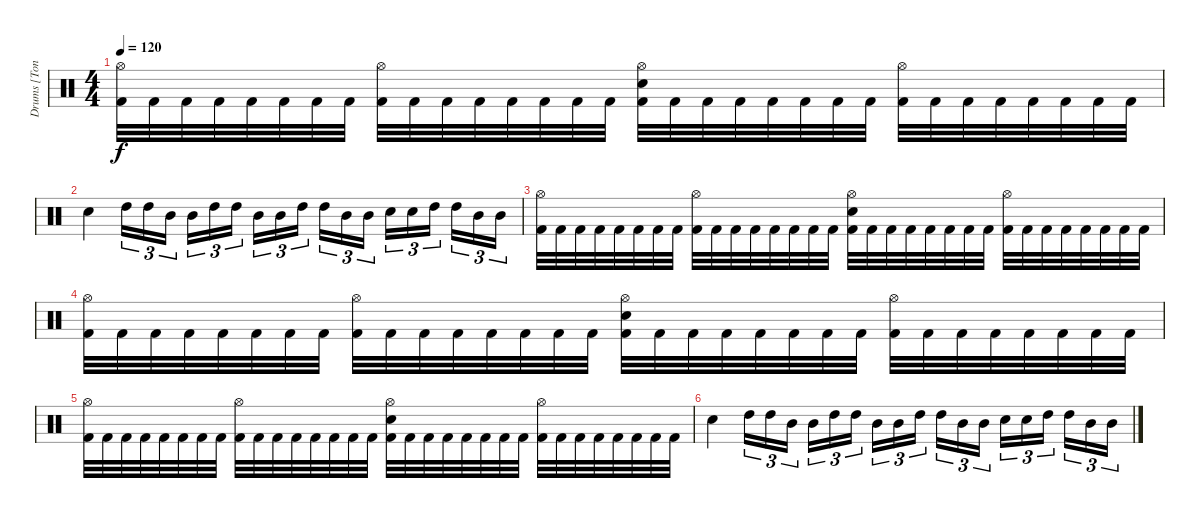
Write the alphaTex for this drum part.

\track ("Drums [Tony Laureano]" "Drums [Ton") {instrument percussion}
\staff {score}
\articulation defaults
\ts (4 4)
\tempo 120
\clef neutral
\ks c
("Hi-Hat (open)" "Kick (hit) 2").32{dy f} "Kick (hit) 2".32 "Kick (hit) 2".32 "Kick (hit) 2".32 "Kick (hit) 2".32 "Kick (hit) 2".32 "Kick (hit) 2".32 "Kick (hit) 2".32 ("Hi-Hat (open)" "Kick (hit) 2").32 "Kick (hit) 2".32 "Kick (hit) 2".32 "Kick (hit) 2".32 "Kick (hit) 2".32 "Kick (hit) 2".32 "Kick (hit) 2".32 "Kick (hit) 2".32 ("Hi-Hat (open)" "Electric Snare (hit)" "Kick (hit) 2").32 "Kick (hit) 2".32 "Kick (hit) 2".32 "Kick (hit) 2".32 "Kick (hit) 2".32 "Kick (hit) 2".32 "Kick (hit) 2".32 "Kick (hit) 2".32 ("Hi-Hat (open)" "Kick (hit) 2").32 "Kick (hit) 2".32 "Kick (hit) 2".32 "Kick (hit) 2".32 "Kick (hit) 2".32 "Kick (hit) 2".32 "Kick (hit) 2".32 "Kick (hit) 2".32 |
"Electric Snare (hit)".4 "High Tom (hit)".16{tu (3 2)} "High Tom (hit)".16{tu (3 2)} "Mid Tom (hit)".16{tu (3 2)} "Mid Tom (hit)".16{tu (3 2)} "High Tom (hit)".16{tu (3 2)} "High Tom (hit)".16{tu (3 2)} "Mid Tom (hit)".16{tu (3 2)} "Mid Tom (hit)".16{tu (3 2)} "High Tom (hit)".16{tu (3 2)} "High Tom (hit)".16{tu (3 2)} "Mid Tom (hit)".16{tu (3 2)} "Mid Tom (hit)".16{tu (3 2)} "Electric Snare (hit)".16{tu (3 2)} "Electric Snare (hit)".16{tu (3 2)} "High Tom (hit)".16{tu (3 2)} "High Tom (hit)".16{tu (3 2)} "Mid Tom (hit)".16{tu (3 2)} "Mid Tom (hit)".16{tu (3 2)} |
("Hi-Hat (open)" "Kick (hit) 2").32 "Kick (hit) 2".32 "Kick (hit) 2".32 "Kick (hit) 2".32 "Kick (hit) 2".32 "Kick (hit) 2".32 "Kick (hit) 2".32 "Kick (hit) 2".32 ("Hi-Hat (open)" "Kick (hit) 2").32 "Kick (hit) 2".32 "Kick (hit) 2".32 "Kick (hit) 2".32 "Kick (hit) 2".32 "Kick (hit) 2".32 "Kick (hit) 2".32 "Kick (hit) 2".32 ("Hi-Hat (open)" "Electric Snare (hit)" "Kick (hit) 2").32 "Kick (hit) 2".32 "Kick (hit) 2".32 "Kick (hit) 2".32 "Kick (hit) 2".32 "Kick (hit) 2".32 "Kick (hit) 2".32 "Kick (hit) 2".32 ("Hi-Hat (open)" "Kick (hit) 2").32 "Kick (hit) 2".32 "Kick (hit) 2".32 "Kick (hit) 2".32 "Kick (hit) 2".32 "Kick (hit) 2".32 "Kick (hit) 2".32 "Kick (hit) 2".32 |
("Hi-Hat (open)" "Kick (hit) 2").32 "Kick (hit) 2".32 "Kick (hit) 2".32 "Kick (hit) 2".32 "Kick (hit) 2".32 "Kick (hit) 2".32 "Kick (hit) 2".32 "Kick (hit) 2".32 ("Hi-Hat (open)" "Kick (hit) 2").32 "Kick (hit) 2".32 "Kick (hit) 2".32 "Kick (hit) 2".32 "Kick (hit) 2".32 "Kick (hit) 2".32 "Kick (hit) 2".32 "Kick (hit) 2".32 ("Hi-Hat (open)" "Electric Snare (hit)" "Kick (hit) 2").32 "Kick (hit) 2".32 "Kick (hit) 2".32 "Kick (hit) 2".32 "Kick (hit) 2".32 "Kick (hit) 2".32 "Kick (hit) 2".32 "Kick (hit) 2".32 ("Hi-Hat (open)" "Kick (hit) 2").32 "Kick (hit) 2".32 "Kick (hit) 2".32 "Kick (hit) 2".32 "Kick (hit) 2".32 "Kick (hit) 2".32 "Kick (hit) 2".32 "Kick (hit) 2".32 |
("Hi-Hat (open)" "Kick (hit) 2").32 "Kick (hit) 2".32 "Kick (hit) 2".32 "Kick (hit) 2".32 "Kick (hit) 2".32 "Kick (hit) 2".32 "Kick (hit) 2".32 "Kick (hit) 2".32 ("Hi-Hat (open)" "Kick (hit) 2").32 "Kick (hit) 2".32 "Kick (hit) 2".32 "Kick (hit) 2".32 "Kick (hit) 2".32 "Kick (hit) 2".32 "Kick (hit) 2".32 "Kick (hit) 2".32 ("Hi-Hat (open)" "Electric Snare (hit)" "Kick (hit) 2").32 "Kick (hit) 2".32 "Kick (hit) 2".32 "Kick (hit) 2".32 "Kick (hit) 2".32 "Kick (hit) 2".32 "Kick (hit) 2".32 "Kick (hit) 2".32 ("Hi-Hat (open)" "Kick (hit) 2").32 "Kick (hit) 2".32 "Kick (hit) 2".32 "Kick (hit) 2".32 "Kick (hit) 2".32 "Kick (hit) 2".32 "Kick (hit) 2".32 "Kick (hit) 2".32 |
"Electric Snare (hit)".4 "High Tom (hit)".16{tu (3 2)} "High Tom (hit)".16{tu (3 2)} "Mid Tom (hit)".16{tu (3 2)} "Mid Tom (hit)".16{tu (3 2)} "High Tom (hit)".16{tu (3 2)} "High Tom (hit)".16{tu (3 2)} "Mid Tom (hit)".16{tu (3 2)} "Mid Tom (hit)".16{tu (3 2)} "High Tom (hit)".16{tu (3 2)} "High Tom (hit)".16{tu (3 2)} "Mid Tom (hit)".16{tu (3 2)} "Mid Tom (hit)".16{tu (3 2)} "Electric Snare (hit)".16{tu (3 2)} "Electric Snare (hit)".16{tu (3 2)} "High Tom (hit)".16{tu (3 2)} "High Tom (hit)".16{tu (3 2)} "Mid Tom (hit)".16{tu (3 2)} "Mid Tom (hit)".16{tu (3 2)}
